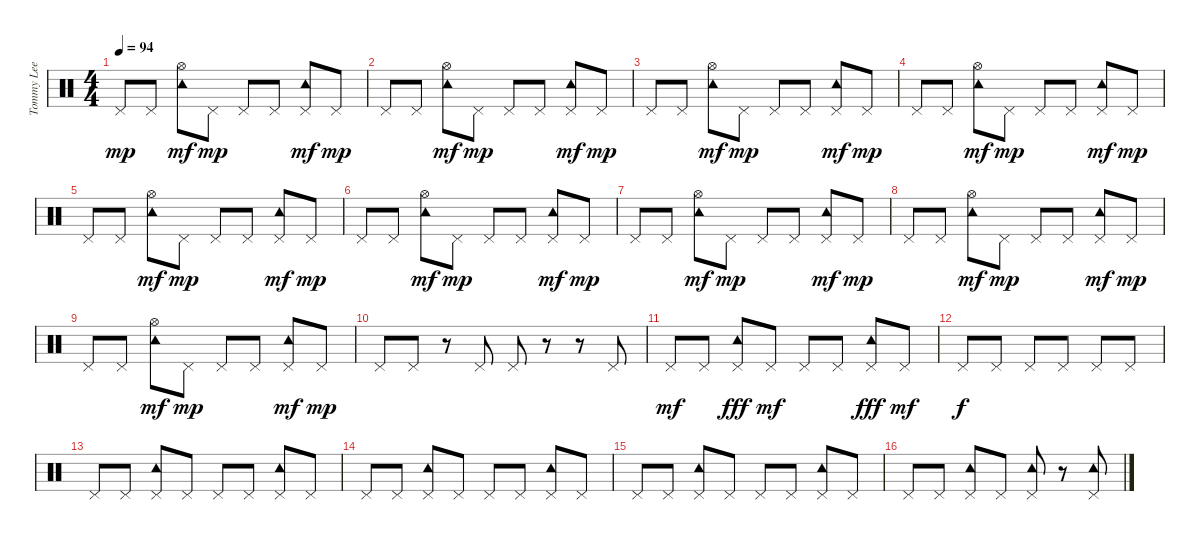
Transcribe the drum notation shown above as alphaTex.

\track ("Tommy Lee" "Tommy Lee") {instrument percussion}
\staff {score}
\articulation defaults
\ts (4 4)
\tempo 94
\clef neutral
\ks c "Pedal Hi-Hat (hit)".8{dy mp} "Pedal Hi-Hat (hit)".8
("Hi-Hat (open)" "Tambourine (hit)").8{dy mf} "Pedal Hi-Hat (hit)".8{dy mp} "Pedal Hi-Hat (hit)".8 "Pedal Hi-Hat (hit)".8 ("Pedal Hi-Hat (hit)" "Tambourine (hit)").8{dy mf} "Pedal Hi-Hat (hit)".8{dy mp} |
"Pedal Hi-Hat (hit)".8 "Pedal Hi-Hat (hit)".8 ("Hi-Hat (open)" "Tambourine (hit)").8{dy mf} "Pedal Hi-Hat (hit)".8{dy mp} "Pedal Hi-Hat (hit)".8 "Pedal Hi-Hat (hit)".8 ("Pedal Hi-Hat (hit)" "Tambourine (hit)").8{dy mf} "Pedal Hi-Hat (hit)".8{dy mp} |
"Pedal Hi-Hat (hit)".8 "Pedal Hi-Hat (hit)".8 ("Hi-Hat (open)" "Tambourine (hit)").8{dy mf} "Pedal Hi-Hat (hit)".8{dy mp} "Pedal Hi-Hat (hit)".8 "Pedal Hi-Hat (hit)".8 ("Pedal Hi-Hat (hit)" "Tambourine (hit)").8{dy mf} "Pedal Hi-Hat (hit)".8{dy mp} |
"Pedal Hi-Hat (hit)".8 "Pedal Hi-Hat (hit)".8 ("Hi-Hat (open)" "Tambourine (hit)").8{dy mf} "Pedal Hi-Hat (hit)".8{dy mp} "Pedal Hi-Hat (hit)".8 "Pedal Hi-Hat (hit)".8 ("Pedal Hi-Hat (hit)" "Tambourine (hit)").8{dy mf} "Pedal Hi-Hat (hit)".8{dy mp} |
"Pedal Hi-Hat (hit)".8 "Pedal Hi-Hat (hit)".8 ("Hi-Hat (open)" "Tambourine (hit)").8{dy mf} "Pedal Hi-Hat (hit)".8{dy mp} "Pedal Hi-Hat (hit)".8 "Pedal Hi-Hat (hit)".8 ("Pedal Hi-Hat (hit)" "Tambourine (hit)").8{dy mf} "Pedal Hi-Hat (hit)".8{dy mp} |
"Pedal Hi-Hat (hit)".8 "Pedal Hi-Hat (hit)".8 ("Hi-Hat (open)" "Tambourine (hit)").8{dy mf} "Pedal Hi-Hat (hit)".8{dy mp} "Pedal Hi-Hat (hit)".8 "Pedal Hi-Hat (hit)".8 ("Pedal Hi-Hat (hit)" "Tambourine (hit)").8{dy mf} "Pedal Hi-Hat (hit)".8{dy mp} |
"Pedal Hi-Hat (hit)".8 "Pedal Hi-Hat (hit)".8 ("Hi-Hat (open)" "Tambourine (hit)").8{dy mf} "Pedal Hi-Hat (hit)".8{dy mp} "Pedal Hi-Hat (hit)".8 "Pedal Hi-Hat (hit)".8 ("Pedal Hi-Hat (hit)" "Tambourine (hit)").8{dy mf} "Pedal Hi-Hat (hit)".8{dy mp} |
"Pedal Hi-Hat (hit)".8 "Pedal Hi-Hat (hit)".8 ("Hi-Hat (open)" "Tambourine (hit)").8{dy mf} "Pedal Hi-Hat (hit)".8{dy mp} "Pedal Hi-Hat (hit)".8 "Pedal Hi-Hat (hit)".8 ("Pedal Hi-Hat (hit)" "Tambourine (hit)").8{dy mf} "Pedal Hi-Hat (hit)".8{dy mp} |
"Pedal Hi-Hat (hit)".8 "Pedal Hi-Hat (hit)".8 ("Hi-Hat (open)" "Tambourine (hit)").8{dy mf} "Pedal Hi-Hat (hit)".8{dy mp} "Pedal Hi-Hat (hit)".8 "Pedal Hi-Hat (hit)".8 ("Pedal Hi-Hat (hit)" "Tambourine (hit)").8{dy mf} "Pedal Hi-Hat (hit)".8{dy mp} |
"Pedal Hi-Hat (hit)".8 "Pedal Hi-Hat (hit)".8 r.8 "Pedal Hi-Hat (hit)".8 "Pedal Hi-Hat (hit)".8 r.8 r.8 "Pedal Hi-Hat (hit)".8 |
"Pedal Hi-Hat (hit)".8{dy mf} "Pedal Hi-Hat (hit)".8 ("Pedal Hi-Hat (hit)" "Tambourine (hit)").8{dy fff} "Pedal Hi-Hat (hit)".8{dy mf} "Pedal Hi-Hat (hit)".8 "Pedal Hi-Hat (hit)".8 ("Pedal Hi-Hat (hit)" "Tambourine (hit)").8{dy fff} "Pedal Hi-Hat (hit)".8{dy mf} |
"Pedal Hi-Hat (hit)".8{dy f} "Pedal Hi-Hat (hit)".8 "Pedal Hi-Hat (hit)".8 "Pedal Hi-Hat (hit)".8 "Pedal Hi-Hat (hit)".8 "Pedal Hi-Hat (hit)".8 |
"Pedal Hi-Hat (hit)".8 "Pedal Hi-Hat (hit)".8 ("Pedal Hi-Hat (hit)" "Tambourine (hit)").8 "Pedal Hi-Hat (hit)".8 "Pedal Hi-Hat (hit)".8 "Pedal Hi-Hat (hit)".8 ("Pedal Hi-Hat (hit)" "Tambourine (hit)").8 "Pedal Hi-Hat (hit)".8 |
"Pedal Hi-Hat (hit)".8 "Pedal Hi-Hat (hit)".8 ("Pedal Hi-Hat (hit)" "Tambourine (hit)").8 "Pedal Hi-Hat (hit)".8 "Pedal Hi-Hat (hit)".8 "Pedal Hi-Hat (hit)".8 ("Pedal Hi-Hat (hit)" "Tambourine (hit)").8 "Pedal Hi-Hat (hit)".8 |
"Pedal Hi-Hat (hit)".8 "Pedal Hi-Hat (hit)".8 ("Pedal Hi-Hat (hit)" "Tambourine (hit)").8 "Pedal Hi-Hat (hit)".8 "Pedal Hi-Hat (hit)".8 "Pedal Hi-Hat (hit)".8 ("Pedal Hi-Hat (hit)" "Tambourine (hit)").8 "Pedal Hi-Hat (hit)".8 |
"Pedal Hi-Hat (hit)".8 "Pedal Hi-Hat (hit)".8 ("Pedal Hi-Hat (hit)" "Tambourine (hit)").8 "Pedal Hi-Hat (hit)".8 ("Pedal Hi-Hat (hit)" "Tambourine (hit)").8 r.8 ("Pedal Hi-Hat (hit)" "Tambourine (hit)").8
